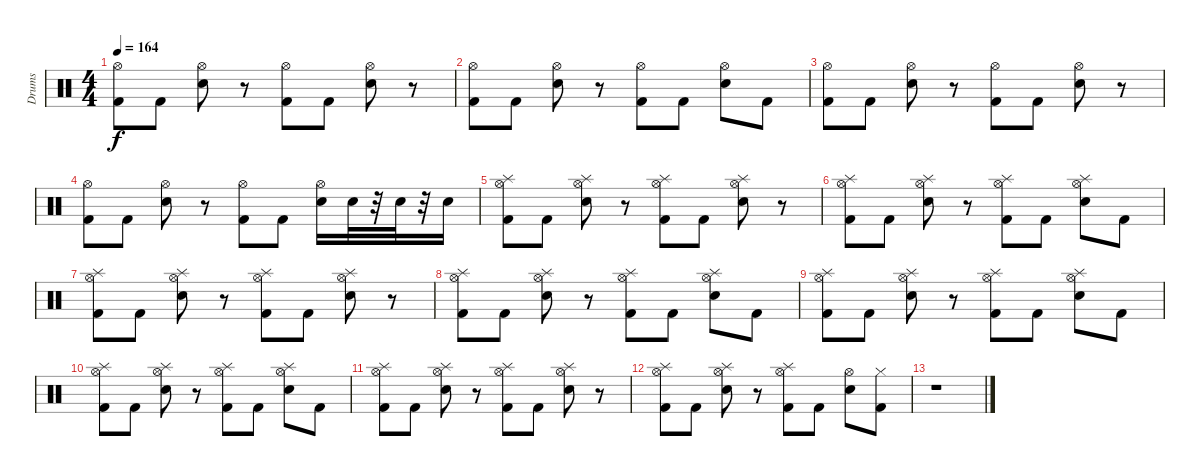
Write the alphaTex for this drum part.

\track ("Drums" "Drums") {instrument percussion}
\staff {score}
\articulation defaults
\ts (4 4)
\tempo 164
\clef neutral
\ks c
("Hi-Hat (open)" "Kick (hit) 2").8{dy f} "Kick (hit) 2".8 ("Hi-Hat (open)" "Electric Snare (hit)").8 r.8 ("Hi-Hat (open)" "Kick (hit) 2").8 "Kick (hit) 2".8 ("Hi-Hat (open)" "Electric Snare (hit)").8 r.8 |
("Hi-Hat (open)" "Kick (hit) 2").8 "Kick (hit) 2".8 ("Hi-Hat (open)" "Electric Snare (hit)").8 r.8 ("Hi-Hat (open)" "Kick (hit) 2").8 "Kick (hit) 2".8 ("Hi-Hat (open)" "Electric Snare (hit)").8 "Kick (hit) 2".8 |
("Hi-Hat (open)" "Kick (hit) 2").8 "Kick (hit) 2".8 ("Hi-Hat (open)" "Electric Snare (hit)").8 r.8 ("Hi-Hat (open)" "Kick (hit) 2").8 "Kick (hit) 2".8 ("Hi-Hat (open)" "Electric Snare (hit)").8 r.8 |
("Hi-Hat (open)" "Kick (hit) 2").8 "Kick (hit) 2".8 ("Hi-Hat (open)" "Electric Snare (hit)").8 r.8 ("Hi-Hat (open)" "Kick (hit) 2").8 "Kick (hit) 2".8 ("Hi-Hat (open)" "Electric Snare (hit)").16 "Electric Snare (hit)".32 r.32 "Electric Snare (hit)".32 r.32 "Electric Snare (hit)".16 |
("Kick (hit) 2" "Splash (hit)" "Hi-Hat (open)").8 "Kick (hit) 2".8 ("Electric Snare (hit)" "Splash (hit)" "Hi-Hat (open)").8 r.8 ("Kick (hit) 2" "Splash (hit)" "Hi-Hat (open)").8 "Kick (hit) 2".8 ("Electric Snare (hit)" "Splash (hit)" "Hi-Hat (open)").8 r.8 |
("Hi-Hat (open)" "Kick (hit) 2" "Splash (hit)").8 "Kick (hit) 2".8 ("Hi-Hat (open)" "Electric Snare (hit)" "Splash (hit)").8 r.8 ("Hi-Hat (open)" "Kick (hit) 2" "Splash (hit)").8 "Kick (hit) 2".8 ("Hi-Hat (open)" "Electric Snare (hit)" "Splash (hit)").8 "Kick (hit) 2".8 |
("Kick (hit) 2" "Splash (hit)" "Hi-Hat (open)").8 "Kick (hit) 2".8 ("Electric Snare (hit)" "Splash (hit)" "Hi-Hat (open)").8 r.8 ("Kick (hit) 2" "Splash (hit)" "Hi-Hat (open)").8 "Kick (hit) 2".8 ("Electric Snare (hit)" "Splash (hit)" "Hi-Hat (open)").8 r.8 |
("Hi-Hat (open)" "Kick (hit) 2" "Splash (hit)").8 "Kick (hit) 2".8 ("Hi-Hat (open)" "Electric Snare (hit)" "Splash (hit)").8 r.8 ("Hi-Hat (open)" "Kick (hit) 2" "Splash (hit)").8 "Kick (hit) 2".8 ("Hi-Hat (open)" "Electric Snare (hit)" "Splash (hit)").8 "Kick (hit) 2".8 |
("Hi-Hat (open)" "Kick (hit) 2" "Splash (hit)").8 "Kick (hit) 2".8 ("Hi-Hat (open)" "Electric Snare (hit)" "Splash (hit)").8 r.8 ("Hi-Hat (open)" "Kick (hit) 2" "Splash (hit)").8 "Kick (hit) 2".8 ("Hi-Hat (open)" "Electric Snare (hit)" "Splash (hit)").8 "Kick (hit) 2".8 |
("Hi-Hat (open)" "Kick (hit) 2" "Splash (hit)").8 "Kick (hit) 2".8 ("Hi-Hat (open)" "Electric Snare (hit)" "Splash (hit)").8 r.8 ("Hi-Hat (open)" "Kick (hit) 2" "Splash (hit)").8 "Kick (hit) 2".8 ("Hi-Hat (open)" "Electric Snare (hit)" "Splash (hit)").8 "Kick (hit) 2".8 |
("Kick (hit) 2" "Splash (hit)" "Hi-Hat (open)").8 "Kick (hit) 2".8 ("Electric Snare (hit)" "Splash (hit)" "Hi-Hat (open)").8 r.8 ("Kick (hit) 2" "Splash (hit)" "Hi-Hat (open)").8 "Kick (hit) 2".8 ("Electric Snare (hit)" "Splash (hit)" "Hi-Hat (open)").8 r.8 |
("Hi-Hat (open)" "Kick (hit) 2" "Splash (hit)").8 "Kick (hit) 2".8 ("Hi-Hat (open)" "Electric Snare (hit)" "Splash (hit)").8 r.8 ("Hi-Hat (open)" "Kick (hit) 2" "Splash (hit)").8 "Kick (hit) 2".8 ("Hi-Hat (open)" "Electric Snare (hit)").8 ("Kick (hit) 2" "Hi-Hat (closed)").8 |
r.1
